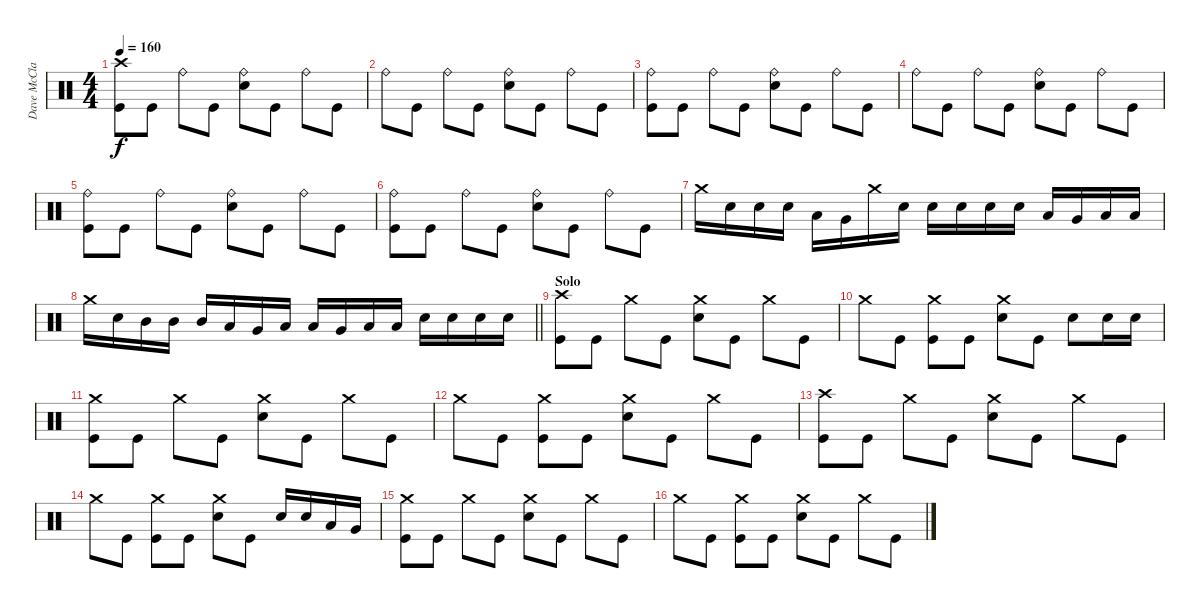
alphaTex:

\track ("Dave McClain" "Dave McCla") {instrument percussion}
\staff {score}
\articulation defaults
\ts (4 4)
\tempo 160
\clef neutral
\ks c
("Crash high (hit)" "Kick (hit)").8{dy f} "Kick (hit)".8 "Ride (bell)".8 "Kick (hit)".8 ("Ride (bell)" "Electric Snare (hit)").8 "Kick (hit)".8 "Ride (bell)".8 "Kick (hit)".8 |
"Ride (bell)".8 "Kick (hit)".8 "Ride (bell)".8 "Kick (hit)".8 ("Ride (bell)" "Electric Snare (hit)").8 "Kick (hit)".8 "Ride (bell)".8 "Kick (hit)".8 |
("Ride (bell)" "Kick (hit)").8 "Kick (hit)".8 "Ride (bell)".8 "Kick (hit)".8 ("Ride (bell)" "Electric Snare (hit)").8 "Kick (hit)".8 "Ride (bell)".8 "Kick (hit)".8 |
"Ride (bell)".8 "Kick (hit)".8 "Ride (bell)".8 "Kick (hit)".8 ("Ride (bell)" "Electric Snare (hit)").8 "Kick (hit)".8 "Ride (bell)".8 "Kick (hit)".8 |
("Ride (bell)" "Kick (hit)").8 "Kick (hit)".8 "Ride (bell)".8 "Kick (hit)".8 ("Ride (bell)" "Electric Snare (hit)").8 "Kick (hit)".8 "Ride (bell)".8 "Kick (hit)".8 |
("Ride (bell)" "Kick (hit)").8 "Kick (hit)".8 "Ride (bell)".8 "Kick (hit)".8 ("Ride (bell)" "Electric Snare (hit)").8 "Kick (hit)".8 "Ride (bell)".8 "Kick (hit)".8 |
"Crash medium (hit)".16 "Electric Snare (hit)".16 "Electric Snare (hit)".16 "Electric Snare (hit)".16 "Low Tom (hit)".16 "Very Low Tom (hit)".16 "Crash medium (hit)".16 "Electric Snare (hit)".16 "Electric Snare (hit)".16 "Electric Snare (hit)".16 "Electric Snare (hit)".16 "Electric Snare (hit)".16 "Low Tom (hit)".16 "Very Low Tom (hit)".16 "Low Floor Tom (hit)".16 "Low Floor Tom (hit)".16 |
\barLineRight lightlight "Crash medium (hit)".16 "Electric Snare (hit)".16 "Mid Tom (hit)".16 "Mid Tom (hit)".16 "Mid Tom (hit)".16 "Low Tom (hit)".16 "Very Low Tom (hit)".16 "Low Floor Tom (hit)".16 "Low Tom (hit)".16 "Very Low Tom (hit)".16 "Low Floor Tom (hit)".16 "Low Floor Tom (hit)".16 "Electric Snare (hit)".16 "Electric Snare (hit)".16 "Electric Snare (hit)".16 "Electric Snare (hit)".16
|
\section ("" "Solo")
("Crash high (hit)" "Kick (hit)").8 "Kick (hit)".8 "Crash medium (hit)".8 "Kick (hit)".8 ("Crash medium (hit)" "Electric Snare (hit)").8 "Kick (hit)".8 "Crash medium (hit)".8 "Kick (hit)".8 |
"Crash medium (hit)".8 "Kick (hit)".8 ("Crash medium (hit)" "Kick (hit)").8 "Kick (hit)".8 ("Crash medium (hit)" "Electric Snare (hit)").8 "Kick (hit)".8 "Electric Snare (hit)".8 "Electric Snare (hit)".16 "Electric Snare (hit)".16 |
("Crash medium (hit)" "Kick (hit)").8 "Kick (hit)".8 "Crash medium (hit)".8 "Kick (hit)".8 ("Crash medium (hit)" "Electric Snare (hit)").8 "Kick (hit)".8 "Crash medium (hit)".8 "Kick (hit)".8 |
"Crash medium (hit)".8 "Kick (hit)".8 ("Crash medium (hit)" "Kick (hit)").8 "Kick (hit)".8 ("Crash medium (hit)" "Electric Snare (hit)").8 "Kick (hit)".8 "Crash medium (hit)".8 "Kick (hit)".8 |
("Crash high (hit)" "Kick (hit)").8 "Kick (hit)".8 "Crash medium (hit)".8 "Kick (hit)".8 ("Crash medium (hit)" "Electric Snare (hit)").8 "Kick (hit)".8 "Crash medium (hit)".8 "Kick (hit)".8 |
"Crash medium (hit)".8 "Kick (hit)".8 ("Crash medium (hit)" "Kick (hit)").8 "Kick (hit)".8 ("Crash medium (hit)" "Electric Snare (hit)").8 "Kick (hit)".8 "Electric Snare (hit)".16 "Electric Snare (hit)".16 "Low Tom (hit)".16 "Very Low Tom (hit)".16 |
("Crash medium (hit)" "Kick (hit)").8 "Kick (hit)".8 "Crash medium (hit)".8 "Kick (hit)".8 ("Crash medium (hit)" "Electric Snare (hit)").8 "Kick (hit)".8 "Crash medium (hit)".8 "Kick (hit)".8 |
"Crash medium (hit)".8 "Kick (hit)".8 ("Crash medium (hit)" "Kick (hit)").8 "Kick (hit)".8 ("Crash medium (hit)" "Electric Snare (hit)").8 "Kick (hit)".8 "Crash medium (hit)".8 "Kick (hit)".8
